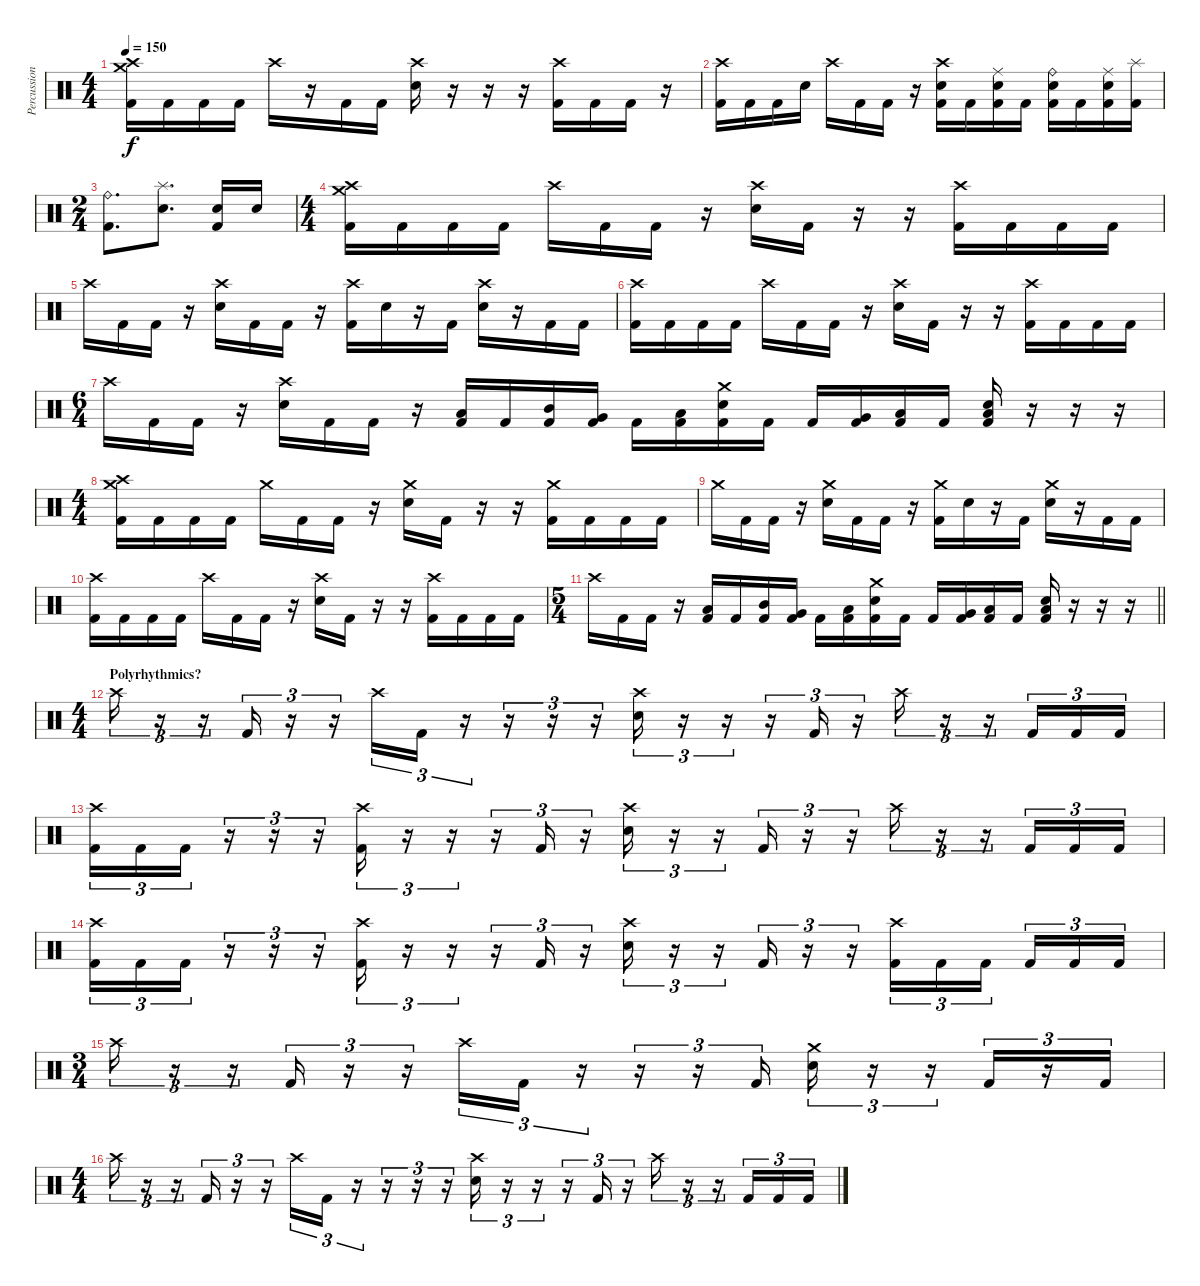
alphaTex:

\track ("Percussion" "Percussion") {instrument percussion}
\staff {score}
\articulation defaults
\ts (4 4)
\tempo 150
\clef neutral
\ks c
("Crash high (hit)" "Crash medium (hit)" "Kick (hit) 2").16{dy f} "Kick (hit) 2".16 "Kick (hit) 2".16 "Kick (hit) 2".16 "Crash high (hit)".16 r.16 "Kick (hit) 2".16 "Kick (hit) 2".16 ("Crash high (hit)" "Snare (hit) 2").16 r.16 r.16 r.16 ("Crash high (hit)" "Kick (hit) 2").16 "Kick (hit) 2".16 "Kick (hit) 2".16 r.16 |
("Crash high (hit)" "Kick (hit) 2").16 "Kick (hit) 2".16 "Kick (hit) 2".16 "Snare (hit) 2".16 "Crash high (hit)".16 "Kick (hit) 2".16 "Kick (hit) 2".16 r.16 ("Crash high (hit)" "Snare (hit) 2" "Kick (hit) 2").16 "Kick (hit) 2".16 ("Ride (middle)" "Snare (hit) 2" "Kick (hit) 2").16 "Kick (hit) 2".16 ("Ride (bell)" "Snare (hit) 2" "Kick (hit) 2").16 "Kick (hit) 2".16 ("Ride (middle)" "Snare (hit) 2" "Kick (hit) 2").16 ("Splash (hit)" "Kick (hit) 2").16 |
\ts (2 4)
("Ride (bell)" "Kick (hit) 2").8{d} ("Splash (hit)" "Snare (hit) 2").8{d} ("Snare (hit) 2" "Kick (hit) 2").16 "Snare (hit) 2".16 |
\ts (4 4)
("Crash medium (hit)" "Crash high (hit)" "Kick (hit) 2").16 "Kick (hit) 2".16 "Kick (hit) 2".16 "Kick (hit) 2".16 "Crash high (hit)".16 "Kick (hit) 2".16 "Kick (hit) 2".16 r.16 ("Crash high (hit)" "Snare (hit) 2").16 "Kick (hit) 2".16 r.16 r.16 ("Crash high (hit)" "Kick (hit) 2").16 "Kick (hit) 2".16 "Kick (hit) 2".16 "Kick (hit) 2".16 |
"Crash high (hit)".16 "Kick (hit) 2".16 "Kick (hit) 2".16 r.16 ("Crash high (hit)" "Snare (hit) 2").16 "Kick (hit) 2".16 "Kick (hit) 2".16 r.16 ("Crash high (hit)" "Kick (hit) 2").16 "Snare (hit) 2".16 r.16 "Kick (hit) 2".16 ("Crash high (hit)" "Snare (hit) 2").16 r.16 "Kick (hit) 2".16 "Kick (hit) 2".16 |
("Crash high (hit)" "Kick (hit) 2").16 "Kick (hit) 2".16 "Kick (hit) 2".16 "Kick (hit) 2".16 "Crash high (hit)".16 "Kick (hit) 2".16 "Kick (hit) 2".16 r.16 ("Crash high (hit)" "Snare (hit) 2").16 "Kick (hit) 2".16 r.16 r.16 ("Crash high (hit)" "Kick (hit) 2").16 "Kick (hit) 2".16 "Kick (hit) 2".16 "Kick (hit) 2".16 |
\ts (6 4)
"Crash high (hit)".16 "Kick (hit) 2".16 "Kick (hit) 2".16 r.16 ("Crash high (hit)" "Snare (hit) 2").16 "Kick (hit) 2".16 "Kick (hit) 2".16 r.16 ("Low Tom (hit)" "Kick (hit) 2").16 "Kick (hit) 2".16 ("Mid Tom (hit)" "Kick (hit) 2").16 ("Very Low Tom (hit)" "Kick (hit) 2").16 "Kick (hit) 2".16 ("Low Floor Tom (hit)" "Kick (hit) 2").16 ("Crash medium (hit)" "Snare (hit) 2" "Kick (hit) 2").16 "Kick (hit) 2".16 "Kick (hit) 2".16 ("Very Low Tom (hit)" "Kick (hit) 2").16 ("Low Floor Tom (hit)" "Kick (hit) 2").16 "Kick (hit) 2".16 ("Low Floor Tom (hit)" "Snare (hit) 2" "Kick (hit) 2").16 r.16 r.16 r.16 |
\ts (4 4)
("Crash medium (hit)" "Crash high (hit)" "Kick (hit) 2").16 "Kick (hit) 2".16 "Kick (hit) 2".16 "Kick (hit) 2".16 "Crash medium (hit)".16 "Kick (hit) 2".16 "Kick (hit) 2".16 r.16 ("Crash medium (hit)" "Snare (hit) 2").16 "Kick (hit) 2".16 r.16 r.16 ("Crash medium (hit)" "Kick (hit) 2").16 "Kick (hit) 2".16 "Kick (hit) 2".16 "Kick (hit) 2".16 |
"Crash medium (hit)".16 "Kick (hit) 2".16 "Kick (hit) 2".16 r.16 ("Crash medium (hit)" "Snare (hit) 2").16 "Kick (hit) 2".16 "Kick (hit) 2".16 r.16 ("Crash medium (hit)" "Kick (hit) 2").16 "Snare (hit) 2".16 r.16 "Kick (hit) 2".16 ("Crash medium (hit)" "Snare (hit) 2").16 r.16 "Kick (hit) 2".16 "Kick (hit) 2".16 |
("Crash high (hit)" "Kick (hit) 2").16 "Kick (hit) 2".16 "Kick (hit) 2".16 "Kick (hit) 2".16 "Crash high (hit)".16 "Kick (hit) 2".16 "Kick (hit) 2".16 r.16 ("Crash high (hit)" "Snare (hit) 2").16 "Kick (hit) 2".16 r.16 r.16 ("Crash high (hit)" "Kick (hit) 2").16 "Kick (hit) 2".16 "Kick (hit) 2".16 "Kick (hit) 2".16 |
\ts (5 4)
\barLineRight lightlight "Crash high (hit)".16 "Kick (hit) 2".16 "Kick (hit) 2".16
r.16 ("Low Tom (hit)" "Kick (hit) 2").16 "Kick (hit) 2".16 ("Mid Tom (hit)" "Kick (hit) 2").16 ("Very Low Tom (hit)" "Kick (hit) 2").16 "Kick (hit) 2".16 ("Low Floor Tom (hit)" "Kick (hit) 2").16 ("Crash medium (hit)" "Snare (hit) 2" "Kick (hit) 2").16 "Kick (hit) 2".16 "Kick (hit) 2".16 ("Very Low Tom (hit)" "Kick (hit) 2").16 ("Low Floor Tom (hit)" "Kick (hit) 2").16 "Kick (hit) 2".16 ("Low Floor Tom (hit)" "Snare (hit) 2" "Kick (hit) 2").16 r.16 r.16 r.16 |
\ts (4 4)
\section ("" "Polyrhythmics?")
"Crash high (hit)".16{tu (3 2)} r.16{tu (3 2)} r.16{tu (3 2)} "Kick (hit) 2".16{tu (3 2)} r.16{tu (3 2)} r.16{tu (3 2)} "Crash high (hit)".16{tu (3 2)} "Kick (hit) 2".16{tu (3 2)} r.16{tu (3 2)} r.16{tu (3 2)} r.16{tu (3 2)} r.16{tu (3 2)} ("Crash high (hit)" "Snare (hit) 2").16{tu (3 2)} r.16{tu (3 2)} r.16{tu (3 2)} r.16{tu (3 2)} "Kick (hit) 2".16{tu (3 2)} r.16{tu (3 2)} "Crash high (hit)".16{tu (3 2)} r.16{tu (3 2)} r.16{tu (3 2)} "Kick (hit) 2".16{tu (3 2)} "Kick (hit) 2".16{tu (3 2)} "Kick (hit) 2".16{tu (3 2)} |
("Crash high (hit)" "Kick (hit) 2").16{tu (3 2)} "Kick (hit) 2".16{tu (3 2)} "Kick (hit) 2".16{tu (3 2)} r.16{tu (3 2)} r.16{tu (3 2)} r.16{tu (3 2)} ("Crash high (hit)" "Kick (hit) 2").16{tu (3 2)} r.16{tu (3 2)} r.16{tu (3 2)} r.16{tu (3 2)} "Kick (hit) 2".16{tu (3 2)} r.16{tu (3 2)} ("Crash high (hit)" "Snare (hit) 2").16{tu (3 2)} r.16{tu (3 2)} r.16{tu (3 2)} "Kick (hit) 2".16{tu (3 2)} r.16{tu (3 2)} r.16{tu (3 2)} "Crash high (hit)".16{tu (3 2)} r.16{tu (3 2)} r.16{tu (3 2)} "Kick (hit) 2".16{tu (3 2)} "Kick (hit) 2".16{tu (3 2)} "Kick (hit) 2".16{tu (3 2)} |
("Crash high (hit)" "Kick (hit) 2").16{tu (3 2)} "Kick (hit) 2".16{tu (3 2)} "Kick (hit) 2".16{tu (3 2)} r.16{tu (3 2)} r.16{tu (3 2)} r.16{tu (3 2)} ("Crash high (hit)" "Kick (hit) 2").16{tu (3 2)} r.16{tu (3 2)} r.16{tu (3 2)} r.16{tu (3 2)} "Kick (hit) 2".16{tu (3 2)} r.16{tu (3 2)} ("Crash high (hit)" "Snare (hit) 2").16{tu (3 2)} r.16{tu (3 2)} r.16{tu (3 2)} "Kick (hit) 2".16{tu (3 2)} r.16{tu (3 2)} r.16{tu (3 2)} ("Crash high (hit)" "Kick (hit) 2").16{tu (3 2)} "Kick (hit) 2".16{tu (3 2)} "Kick (hit) 2".16{tu (3 2) beam splitsecondary} "Kick (hit) 2".16{tu (3 2)} "Kick (hit) 2".16{tu (3 2)} "Kick (hit) 2".16{tu (3 2)} |
\ts (3 4)
"Crash high (hit)".16{tu (3 2)} r.16{tu (3 2)} r.16{tu (3 2)} "Kick (hit) 2".16{tu (3 2)} r.16{tu (3 2)} r.16{tu (3 2)} "Crash high (hit)".16{tu (3 2)} "Kick (hit) 2".16{tu (3 2)} r.16{tu (3 2)} r.16{tu (3 2)} r.16{tu (3 2)} "Kick (hit) 2".16{tu (3 2)} ("Crash medium (hit)" "Snare (hit) 2").16{tu (3 2)} r.16{tu (3 2)} r.16{tu (3 2)} "Kick (hit) 2".16{tu (3 2)} r.16{tu (3 2)} "Kick (hit) 2".16{tu (3 2)} |
\ts (4 4)
"Crash high (hit)".16{tu (3 2)} r.16{tu (3 2)} r.16{tu (3 2)} "Kick (hit) 2".16{tu (3 2)} r.16{tu (3 2)} r.16{tu (3 2)} "Crash high (hit)".16{tu (3 2)} "Kick (hit) 2".16{tu (3 2)} r.16{tu (3 2)} r.16{tu (3 2)} r.16{tu (3 2)} r.16{tu (3 2)} ("Crash high (hit)" "Snare (hit) 2").16{tu (3 2)} r.16{tu (3 2)} r.16{tu (3 2)} r.16{tu (3 2)} "Kick (hit) 2".16{tu (3 2)} r.16{tu (3 2)} "Crash high (hit)".16{tu (3 2)} r.16{tu (3 2)} r.16{tu (3 2)} "Kick (hit) 2".16{tu (3 2)} "Kick (hit) 2".16{tu (3 2)} "Kick (hit) 2".16{tu (3 2)}
